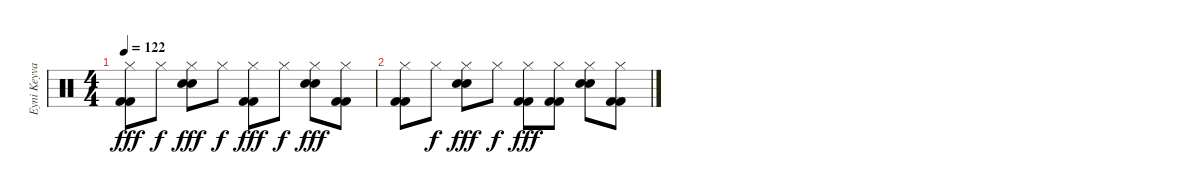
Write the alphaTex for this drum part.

\track ("Eyni Keyvanshokoh" "Eyni Keyva") {instrument percussion}
\staff {score}
\articulation defaults
\ts (4 4)
\tempo 122
\clef neutral
\ks c
("Hi-Hat (closed)" "Kick (hit) 2" "Kick (hit) 2").8{dy fff} "Hi-Hat (closed)".8{dy f} ("Hi-Hat (closed)" "Electric Snare (hit)" "Electric Snare (hit)").8{dy fff} "Hi-Hat (closed)".8{dy f} ("Hi-Hat (closed)" "Kick (hit) 2" "Kick (hit) 2").8{dy fff} "Hi-Hat (closed)".8{dy f} ("Hi-Hat (closed)" "Electric Snare (hit)" "Electric Snare (hit)").8{dy fff} ("Hi-Hat (closed)" "Kick (hit) 2" "Kick (hit) 2").8 |
("Hi-Hat (closed)" "Kick (hit) 2" "Kick (hit) 2").8 "Hi-Hat (closed)".8{dy f} ("Hi-Hat (closed)" "Electric Snare (hit)" "Electric Snare (hit)").8{dy fff} "Hi-Hat (closed)".8{dy f} ("Hi-Hat (closed)" "Kick (hit) 2" "Kick (hit) 2").8{dy fff} ("Hi-Hat (closed)" "Kick (hit) 2" "Kick (hit) 2").8 ("Hi-Hat (closed)" "Electric Snare (hit)" "Electric Snare (hit)").8 ("Hi-Hat (closed)" "Kick (hit) 2" "Kick (hit) 2").8
